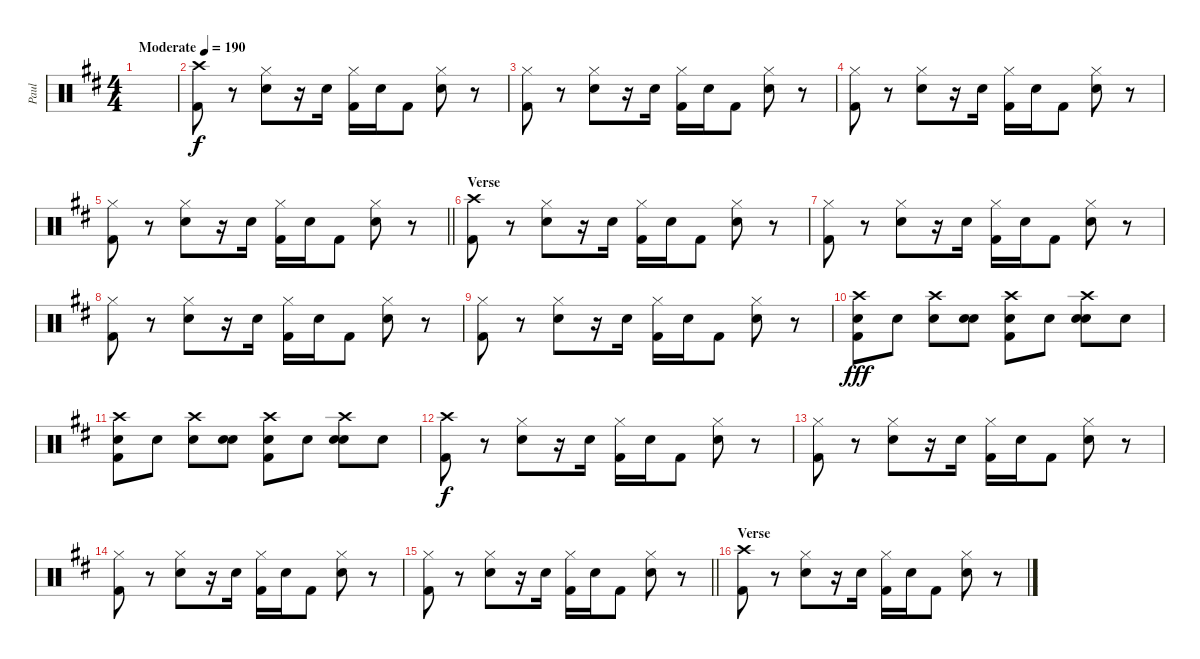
\track ("Paul" "Paul") {instrument percussion}
\staff {score}
\articulation defaults
\ts (4 4)
\tempo (190 "Moderate")
\clef neutral
\ks d
|
("Crash high (hit)" "Kick (hit) 2").8 r.8 ("Hi-Hat (closed)" "Electric Snare (hit)").8 r.16 "Electric Snare (hit)".16 ("Hi-Hat (closed)" "Kick (hit) 2").16 "Electric Snare (hit)".16 "Kick (hit) 2".8 ("Hi-Hat (closed)" "Electric Snare (hit)").8 r.8 |
("Hi-Hat (closed)" "Kick (hit) 2").8 r.8 ("Hi-Hat (closed)" "Electric Snare (hit)").8 r.16 "Electric Snare (hit)".16 ("Hi-Hat (closed)" "Kick (hit) 2").16 "Electric Snare (hit)".16 "Kick (hit) 2".8 ("Hi-Hat (closed)" "Electric Snare (hit)").8 r.8 |
("Hi-Hat (closed)" "Kick (hit) 2").8 r.8 ("Hi-Hat (closed)" "Electric Snare (hit)").8 r.16 "Electric Snare (hit)".16 ("Hi-Hat (closed)" "Kick (hit) 2").16 "Electric Snare (hit)".16 "Kick (hit) 2".8 ("Hi-Hat (closed)" "Electric Snare (hit)").8 r.8 |
\barLineRight lightlight
("Hi-Hat (closed)" "Kick (hit) 2").8 r.8 ("Hi-Hat (closed)" "Electric Snare (hit)").8 r.16 "Electric Snare (hit)".16 ("Hi-Hat (closed)" "Kick (hit) 2").16 "Electric Snare (hit)".16 "Kick (hit) 2".8 ("Hi-Hat (closed)" "Electric Snare (hit)").8 r.8 |
\section ("" "Verse")
("Crash high (hit)" "Kick (hit) 2").8 r.8 ("Hi-Hat (closed)" "Electric Snare (hit)").8 r.16 "Electric Snare (hit)".16 ("Hi-Hat (closed)" "Kick (hit) 2").16 "Electric Snare (hit)".16 "Kick (hit) 2".8 ("Hi-Hat (closed)" "Electric Snare (hit)").8 r.8 |
("Hi-Hat (closed)" "Kick (hit) 2").8 r.8 ("Hi-Hat (closed)" "Electric Snare (hit)").8 r.16 "Electric Snare (hit)".16 ("Hi-Hat (closed)" "Kick (hit) 2").16 "Electric Snare (hit)".16 "Kick (hit) 2".8 ("Hi-Hat (closed)" "Electric Snare (hit)").8 r.8 |
("Hi-Hat (closed)" "Kick (hit) 2").8 r.8 ("Hi-Hat (closed)" "Electric Snare (hit)").8 r.16 "Electric Snare (hit)".16 ("Hi-Hat (closed)" "Kick (hit) 2").16 "Electric Snare (hit)".16 "Kick (hit) 2".8 ("Hi-Hat (closed)" "Electric Snare (hit)").8 r.8 |
("Hi-Hat (closed)" "Kick (hit) 2").8 r.8 ("Hi-Hat (closed)" "Electric Snare (hit)").8 r.16 "Electric Snare (hit)".16 ("Hi-Hat (closed)" "Kick (hit) 2").16 "Electric Snare (hit)".16 "Kick (hit) 2".8 ("Hi-Hat (closed)" "Electric Snare (hit)").8 r.8 |
("Crash high (hit)" "Hand Clap (hit)" "Kick (hit) 2").8{dy fff} "Hand Clap (hit)".8 ("Crash high (hit)" "Hand Clap (hit)").8 ("Hand Clap (hit)" "Electric Snare (hit)").8 ("Crash high (hit)" "Hand Clap (hit)" "Kick (hit) 2").8 "Hand Clap (hit)".8 ("Crash high (hit)" "Hand Clap (hit)" "Electric Snare (hit)").8 "Hand Clap (hit)".8 |
("Crash high (hit)" "Hand Clap (hit)" "Kick (hit) 2").8 "Hand Clap (hit)".8 ("Crash high (hit)" "Hand Clap (hit)").8 ("Hand Clap (hit)" "Electric Snare (hit)").8 ("Crash high (hit)" "Hand Clap (hit)" "Kick (hit) 2").8 "Hand Clap (hit)".8 ("Crash high (hit)" "Hand Clap (hit)" "Electric Snare (hit)").8 "Hand Clap (hit)".8 |
("Crash high (hit)" "Kick (hit) 2").8{dy f} r.8 ("Hi-Hat (closed)" "Electric Snare (hit)").8 r.16 "Electric Snare (hit)".16 ("Hi-Hat (closed)" "Kick (hit) 2").16 "Electric Snare (hit)".16 "Kick (hit) 2".8 ("Hi-Hat (closed)" "Electric Snare (hit)").8 r.8 |
("Hi-Hat (closed)" "Kick (hit) 2").8 r.8 ("Hi-Hat (closed)" "Electric Snare (hit)").8 r.16 "Electric Snare (hit)".16 ("Hi-Hat (closed)" "Kick (hit) 2").16 "Electric Snare (hit)".16 "Kick (hit) 2".8 ("Hi-Hat (closed)" "Electric Snare (hit)").8 r.8 |
("Hi-Hat (closed)" "Kick (hit) 2").8 r.8 ("Hi-Hat (closed)" "Electric Snare (hit)").8 r.16 "Electric Snare (hit)".16 ("Hi-Hat (closed)" "Kick (hit) 2").16 "Electric Snare (hit)".16 "Kick (hit) 2".8 ("Hi-Hat (closed)" "Electric Snare (hit)").8 r.8 |
\barLineRight lightlight
("Hi-Hat (closed)" "Kick (hit) 2").8 r.8 ("Hi-Hat (closed)" "Electric Snare (hit)").8 r.16 "Electric Snare (hit)".16 ("Hi-Hat (closed)" "Kick (hit) 2").16 "Electric Snare (hit)".16 "Kick (hit) 2".8 ("Hi-Hat (closed)" "Electric Snare (hit)").8 r.8 |
\section ("" "Verse")
("Crash high (hit)" "Kick (hit) 2").8 r.8 ("Hi-Hat (closed)" "Electric Snare (hit)").8 r.16 "Electric Snare (hit)".16 ("Hi-Hat (closed)" "Kick (hit) 2").16 "Electric Snare (hit)".16 "Kick (hit) 2".8 ("Hi-Hat (closed)" "Electric Snare (hit)").8 r.8
